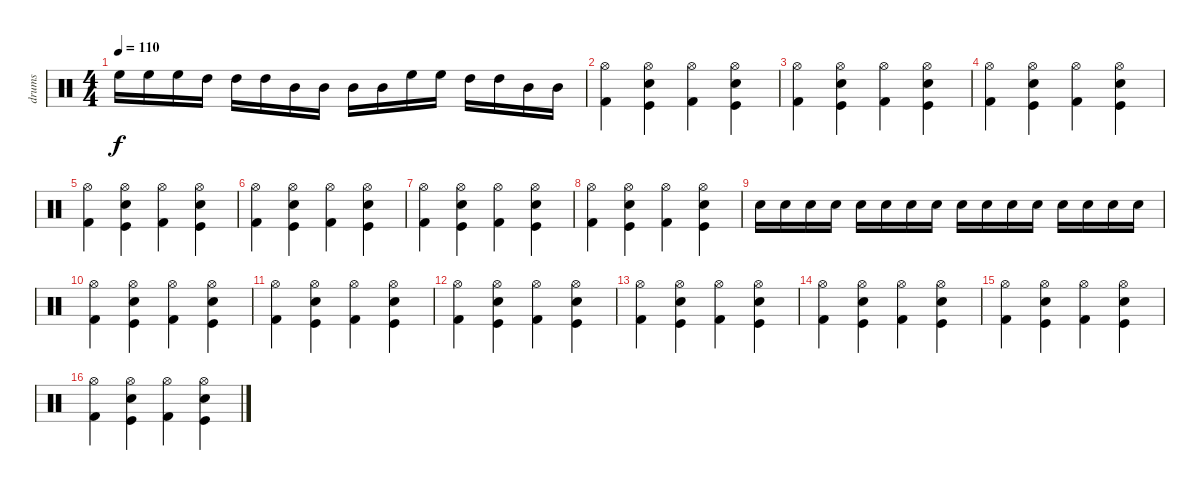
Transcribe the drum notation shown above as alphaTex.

\track ("drums" "drums") {instrument percussion}
\staff {score}
\articulation defaults
\ts (4 4)
\tempo 110
\clef neutral
\ks c "High Floor Tom (hit)".16{dy f} "High Floor Tom (hit)".16 "High Floor Tom (hit)".16 "High Tom (hit)".16 "High Tom (hit)".16 "High Tom (hit)".16 "Mid Tom (hit)".16 "Mid Tom (hit)".16 "Mid Tom (hit)".16 "Mid Tom (hit)".16 "High Floor Tom (hit)".16 "High Floor Tom (hit)".16 "High Tom (hit)".16 "High Tom (hit)".16 "Mid Tom (hit)".16 "Mid Tom (hit)".16
|
("Hi-Hat (open)" "Kick (hit) 2").4 ("Hi-Hat (open)" "Snare (hit) 2" "Kick (hit)").4 ("Hi-Hat (open)" "Kick (hit) 2").4 ("Hi-Hat (open)" "Snare (hit) 2" "Kick (hit)").4 |
("Hi-Hat (open)" "Kick (hit) 2").4 ("Hi-Hat (open)" "Snare (hit) 2" "Kick (hit)").4 ("Hi-Hat (open)" "Kick (hit) 2").4 ("Hi-Hat (open)" "Snare (hit) 2" "Kick (hit)").4 |
("Hi-Hat (open)" "Kick (hit) 2").4 ("Hi-Hat (open)" "Snare (hit) 2" "Kick (hit)").4 ("Hi-Hat (open)" "Kick (hit) 2").4 ("Hi-Hat (open)" "Snare (hit) 2" "Kick (hit)").4 |
("Hi-Hat (open)" "Kick (hit) 2").4 ("Hi-Hat (open)" "Snare (hit) 2" "Kick (hit)").4 ("Hi-Hat (open)" "Kick (hit) 2").4 ("Hi-Hat (open)" "Snare (hit) 2" "Kick (hit)").4 |
("Hi-Hat (open)" "Kick (hit) 2").4 ("Hi-Hat (open)" "Snare (hit) 2" "Kick (hit)").4 ("Hi-Hat (open)" "Kick (hit) 2").4 ("Hi-Hat (open)" "Snare (hit) 2" "Kick (hit)").4 |
("Hi-Hat (open)" "Kick (hit) 2").4 ("Hi-Hat (open)" "Snare (hit) 2" "Kick (hit)").4 ("Hi-Hat (open)" "Kick (hit) 2").4 ("Hi-Hat (open)" "Snare (hit) 2" "Kick (hit)").4 |
("Hi-Hat (open)" "Kick (hit) 2").4 ("Hi-Hat (open)" "Snare (hit) 2" "Kick (hit)").4 ("Hi-Hat (open)" "Kick (hit) 2").4 ("Hi-Hat (open)" "Snare (hit) 2" "Kick (hit)").4 |
"Electric Snare (hit)".16 "Electric Snare (hit)".16 "Electric Snare (hit)".16 "Electric Snare (hit)".16 "Electric Snare (hit)".16 "Electric Snare (hit)".16 "Electric Snare (hit)".16 "Electric Snare (hit)".16 "Electric Snare (hit)".16 "Electric Snare (hit)".16 "Electric Snare (hit)".16 "Electric Snare (hit)".16 "Electric Snare (hit)".16 "Electric Snare (hit)".16 "Electric Snare (hit)".16 "Electric Snare (hit)".16 |
("Hi-Hat (open)" "Kick (hit) 2").4 ("Hi-Hat (open)" "Snare (hit) 2" "Kick (hit)").4 ("Hi-Hat (open)" "Kick (hit) 2").4 ("Hi-Hat (open)" "Snare (hit) 2" "Kick (hit)").4 |
("Hi-Hat (open)" "Kick (hit) 2").4 ("Hi-Hat (open)" "Snare (hit) 2" "Kick (hit)").4 ("Hi-Hat (open)" "Kick (hit) 2").4 ("Hi-Hat (open)" "Snare (hit) 2" "Kick (hit)").4 |
("Hi-Hat (open)" "Kick (hit) 2").4 ("Hi-Hat (open)" "Snare (hit) 2" "Kick (hit)").4 ("Hi-Hat (open)" "Kick (hit) 2").4 ("Hi-Hat (open)" "Snare (hit) 2" "Kick (hit)").4 |
("Hi-Hat (open)" "Kick (hit) 2").4 ("Hi-Hat (open)" "Snare (hit) 2" "Kick (hit)").4 ("Hi-Hat (open)" "Kick (hit) 2").4 ("Hi-Hat (open)" "Snare (hit) 2" "Kick (hit)").4 |
("Hi-Hat (open)" "Kick (hit) 2").4 ("Hi-Hat (open)" "Snare (hit) 2" "Kick (hit)").4 ("Hi-Hat (open)" "Kick (hit) 2").4 ("Hi-Hat (open)" "Snare (hit) 2" "Kick (hit)").4 |
("Hi-Hat (open)" "Kick (hit) 2").4 ("Hi-Hat (open)" "Snare (hit) 2" "Kick (hit)").4 ("Hi-Hat (open)" "Kick (hit) 2").4 ("Hi-Hat (open)" "Snare (hit) 2" "Kick (hit)").4 |
("Hi-Hat (open)" "Kick (hit) 2").4 ("Hi-Hat (open)" "Snare (hit) 2" "Kick (hit)").4 ("Hi-Hat (open)" "Kick (hit) 2").4 ("Hi-Hat (open)" "Snare (hit) 2" "Kick (hit)").4
